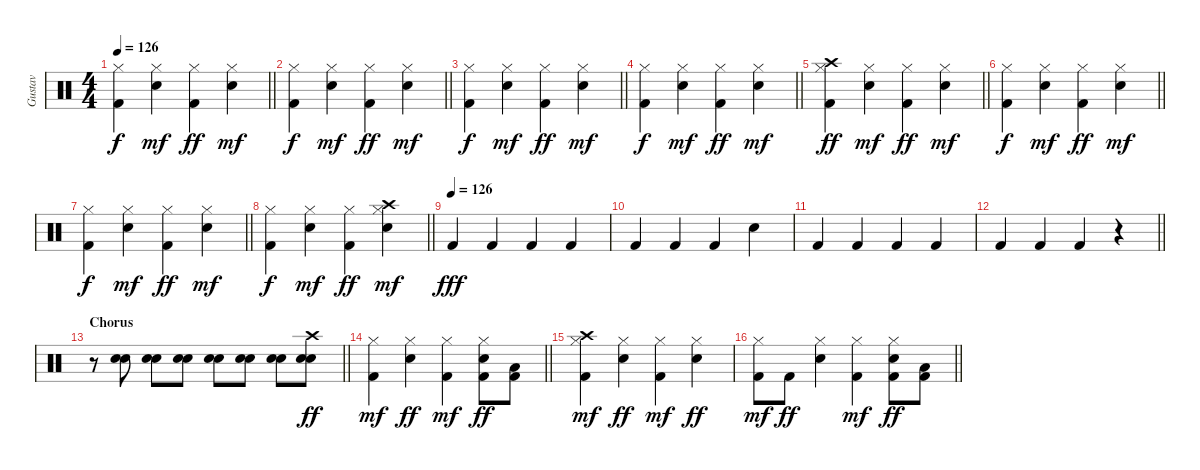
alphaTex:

\track ("Gustav" "Gustav") {instrument percussion}
\staff {score}
\articulation defaults
\ts (4 4)
\tempo 126
\clef neutral
\barLineRight lightlight
\ks c
("Hi-Hat (closed)" "Kick (hit) 2").4{dy f} ("Hi-Hat (closed)" "Snare (hit) 2").4{dy mf} ("Hi-Hat (closed)" "Kick (hit) 2").4{dy ff} ("Hi-Hat (closed)" "Snare (hit) 2").4{dy mf} |
\barLineRight lightlight
("Hi-Hat (closed)" "Kick (hit) 2").4{dy f} ("Hi-Hat (closed)" "Snare (hit) 2").4{dy mf} ("Hi-Hat (closed)" "Kick (hit) 2").4{dy ff} ("Hi-Hat (closed)" "Snare (hit) 2").4{dy mf} |
\barLineRight lightlight
("Hi-Hat (closed)" "Kick (hit) 2").4{dy f} ("Hi-Hat (closed)" "Snare (hit) 2").4{dy mf} ("Hi-Hat (closed)" "Kick (hit) 2").4{dy ff} ("Hi-Hat (closed)" "Snare (hit) 2").4{dy mf} |
\barLineRight lightlight
("Hi-Hat (closed)" "Kick (hit) 2").4{dy f} ("Hi-Hat (closed)" "Snare (hit) 2").4{dy mf} ("Hi-Hat (closed)" "Kick (hit) 2").4{dy ff} ("Hi-Hat (closed)" "Snare (hit) 2").4{dy mf} |
\barLineRight lightlight
("Crash high (hit)" "Hi-Hat (closed)" "Kick (hit) 2").4{dy ff} ("Hi-Hat (closed)" "Snare (hit) 2").4{dy mf} ("Hi-Hat (closed)" "Kick (hit) 2").4{dy ff} ("Hi-Hat (closed)" "Snare (hit) 2").4{dy mf} |
\barLineRight lightlight
("Hi-Hat (closed)" "Kick (hit) 2").4{dy f} ("Hi-Hat (closed)" "Snare (hit) 2").4{dy mf} ("Hi-Hat (closed)" "Kick (hit) 2").4{dy ff} ("Hi-Hat (closed)" "Snare (hit) 2").4{dy mf} |
\barLineRight lightlight
("Hi-Hat (closed)" "Kick (hit) 2").4{dy f} ("Hi-Hat (closed)" "Snare (hit) 2").4{dy mf} ("Hi-Hat (closed)" "Kick (hit) 2").4{dy ff} ("Hi-Hat (closed)" "Snare (hit) 2").4{dy mf} |
\barLineRight lightlight
("Hi-Hat (closed)" "Kick (hit) 2").4{dy f} ("Hi-Hat (closed)" "Snare (hit) 2").4{dy mf} ("Hi-Hat (closed)" "Kick (hit) 2").4{dy ff} ("Crash high (hit)" "Hi-Hat (closed)" "Snare (hit) 2").4{dy mf} |
\tempo (126)
"Kick (hit) 2".4{dy fff} "Kick (hit) 2".4 "Kick (hit) 2".4 "Kick (hit) 2".4 |
"Kick (hit) 2".4 "Kick (hit) 2".4 "Kick (hit) 2".4 "Snare (hit) 2".4 |
"Kick (hit) 2".4 "Kick (hit) 2".4 "Kick (hit) 2".4 "Kick (hit) 2".4 |
\barLineRight lightlight "Kick (hit) 2".4 "Kick (hit) 2".4 "Kick (hit) 2".4
r.4 |
\section ("" "Chorus")
\barLineRight lightlight
r.8 ("Snare (hit) 2" "Snare (hit) 2").8 ("Snare (hit) 2" "Snare (hit) 2").8 ("Snare (hit) 2" "Snare (hit) 2").8 ("Snare (hit) 2" "Snare (hit) 2").8 ("Snare (hit) 2" "Snare (hit) 2").8 ("Snare (hit) 2" "Snare (hit) 2").8 ("Crash high (hit)" "Snare (hit) 2" "Snare (hit) 2").8{dy ff} |
\barLineRight lightlight
("Hi-Hat (closed)" "Kick (hit) 2").4{dy mf} ("Hi-Hat (closed)" "Snare (hit) 2").4{dy ff} ("Hi-Hat (closed)" "Kick (hit) 2").4{dy mf} ("Hi-Hat (closed)" "Snare (hit) 2" "Kick (hit) 2").8{dy ff} ("Low Tom (hit)" "Kick (hit) 2").8 |
("Crash high (hit)" "Hi-Hat (closed)" "Kick (hit) 2").4{dy mf} ("Hi-Hat (closed)" "Snare (hit) 2").4{dy ff} ("Hi-Hat (closed)" "Kick (hit) 2").4{dy mf} ("Hi-Hat (closed)" "Snare (hit) 2").4{dy ff} |
\barLineRight lightlight
("Hi-Hat (closed)" "Kick (hit) 2").8{dy mf} "Kick (hit) 2".8{dy ff} ("Hi-Hat (closed)" "Snare (hit) 2").4 ("Hi-Hat (closed)" "Kick (hit) 2").4{dy mf} ("Hi-Hat (closed)" "Snare (hit) 2" "Kick (hit) 2").8{dy ff} ("Low Tom (hit)" "Kick (hit) 2").8
